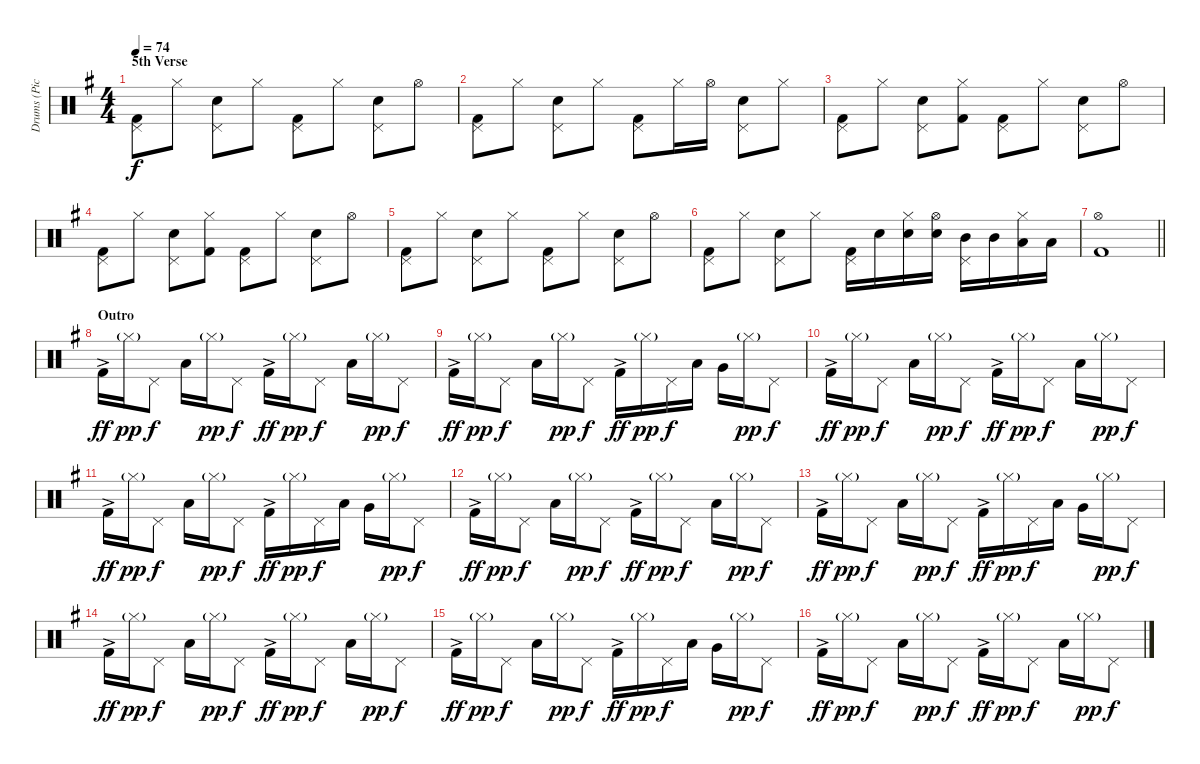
\track ("Drums (Pick)" "Drums (Pic") {instrument percussion}
\staff {score}
\articulation defaults
\ts (4 4)
\section ("" "5th Verse")
\tempo 74
\clef neutral
\ks g
("Kick (hit) 2" "Pedal Hi-Hat (hit)").8{dy f} "Hi-Hat (closed)".8 ("Snare (hit) 2" "Pedal Hi-Hat (hit)").8 "Hi-Hat (closed)".8 ("Kick (hit) 2" "Pedal Hi-Hat (hit)").8 "Hi-Hat (closed)".8 ("Snare (hit) 2" "Pedal Hi-Hat (hit)").8 "Hi-Hat (open)".8 |
("Kick (hit) 2" "Pedal Hi-Hat (hit)").8 "Hi-Hat (closed)".8 ("Snare (hit) 2" "Pedal Hi-Hat (hit)").8 "Hi-Hat (closed)".8 ("Kick (hit) 2" "Pedal Hi-Hat (hit)").8 "Hi-Hat (closed)".16 "Hi-Hat (open)".16 ("Snare (hit) 2" "Pedal Hi-Hat (hit)").8 "Hi-Hat (closed)".8 |
("Kick (hit) 2" "Pedal Hi-Hat (hit)").8 "Hi-Hat (closed)".8 ("Snare (hit) 2" "Pedal Hi-Hat (hit)").8 ("Hi-Hat (closed)" "Kick (hit) 2").8 ("Kick (hit) 2" "Pedal Hi-Hat (hit)").8 "Hi-Hat (closed)".8 ("Snare (hit) 2" "Pedal Hi-Hat (hit)").8 "Hi-Hat (open)".8 |
("Kick (hit) 2" "Pedal Hi-Hat (hit)").8 "Hi-Hat (closed)".8 ("Snare (hit) 2" "Pedal Hi-Hat (hit)").8 ("Hi-Hat (closed)" "Kick (hit) 2").8 ("Kick (hit) 2" "Pedal Hi-Hat (hit)").8 "Hi-Hat (closed)".8 ("Snare (hit) 2" "Pedal Hi-Hat (hit)").8 "Hi-Hat (open)".8 |
("Kick (hit) 2" "Pedal Hi-Hat (hit)").8 "Hi-Hat (closed)".8 ("Snare (hit) 2" "Pedal Hi-Hat (hit)").8 "Hi-Hat (closed)".8 ("Kick (hit) 2" "Pedal Hi-Hat (hit)").8 "Hi-Hat (closed)".8 ("Snare (hit) 2" "Pedal Hi-Hat (hit)").8 "Hi-Hat (open)".8 |
("Kick (hit) 2" "Pedal Hi-Hat (hit)").8 "Hi-Hat (closed)".8 ("Snare (hit) 2" "Pedal Hi-Hat (hit)").8 "Hi-Hat (closed)".8 ("Kick (hit) 2" "Pedal Hi-Hat (hit)").16 "Snare (hit) 2".16 ("Hi-Hat (closed)" "Snare (hit) 2").16 ("Hi-Hat (open)" "Snare (hit) 2").16 ("Mid Tom (hit)" "Pedal Hi-Hat (hit)").16 "Mid Tom (hit)".16 ("Hi-Hat (closed)" "Low Tom (hit)").16 "Low Tom (hit)".16 |
\barLineRight lightlight
("Hi-Hat (open)" "Kick (hit) 2").1 |
\section ("" "Outro")
"Kick (hit) 2"{ac}.16{dy ff} "Hi-Hat (closed)"{g}.16{dy pp} "Pedal Hi-Hat (hit)".8{dy f} "Low Tom (hit)".16 "Hi-Hat (closed)"{g}.16{dy pp} "Pedal Hi-Hat (hit)".8{dy f} "Kick (hit) 2"{ac}.16{dy ff} "Hi-Hat (closed)"{g}.16{dy pp} "Pedal Hi-Hat (hit)".8{dy f} "Low Tom (hit)".16 "Hi-Hat (closed)"{g}.16{dy pp} "Pedal Hi-Hat (hit)".8{dy f} |
"Kick (hit) 2"{ac}.16{dy ff} "Hi-Hat (closed)"{g}.16{dy pp} "Pedal Hi-Hat (hit)".8{dy f} "Low Tom (hit)".16 "Hi-Hat (closed)"{g}.16{dy pp} "Pedal Hi-Hat (hit)".8{dy f} "Kick (hit) 2"{ac}.16{dy ff} "Hi-Hat (closed)"{g}.16{dy pp} "Pedal Hi-Hat (hit)".16{dy f} "Low Tom (hit)".16 "Very Low Tom (hit)".16 "Hi-Hat (closed)"{g}.16{dy pp} "Pedal Hi-Hat (hit)".8{dy f} |
"Kick (hit) 2"{ac}.16{dy ff} "Hi-Hat (closed)"{g}.16{dy pp} "Pedal Hi-Hat (hit)".8{dy f} "Low Tom (hit)".16 "Hi-Hat (closed)"{g}.16{dy pp} "Pedal Hi-Hat (hit)".8{dy f} "Kick (hit) 2"{ac}.16{dy ff} "Hi-Hat (closed)"{g}.16{dy pp} "Pedal Hi-Hat (hit)".8{dy f} "Low Tom (hit)".16 "Hi-Hat (closed)"{g}.16{dy pp} "Pedal Hi-Hat (hit)".8{dy f} |
"Kick (hit) 2"{ac}.16{dy ff} "Hi-Hat (closed)"{g}.16{dy pp} "Pedal Hi-Hat (hit)".8{dy f} "Low Tom (hit)".16 "Hi-Hat (closed)"{g}.16{dy pp} "Pedal Hi-Hat (hit)".8{dy f} "Kick (hit) 2"{ac}.16{dy ff} "Hi-Hat (closed)"{g}.16{dy pp} "Pedal Hi-Hat (hit)".16{dy f} "Low Tom (hit)".16 "Very Low Tom (hit)".16 "Hi-Hat (closed)"{g}.16{dy pp} "Pedal Hi-Hat (hit)".8{dy f} |
"Kick (hit) 2"{ac}.16{dy ff} "Hi-Hat (closed)"{g}.16{dy pp} "Pedal Hi-Hat (hit)".8{dy f} "Low Tom (hit)".16 "Hi-Hat (closed)"{g}.16{dy pp} "Pedal Hi-Hat (hit)".8{dy f} "Kick (hit) 2"{ac}.16{dy ff} "Hi-Hat (closed)"{g}.16{dy pp} "Pedal Hi-Hat (hit)".8{dy f} "Low Tom (hit)".16 "Hi-Hat (closed)"{g}.16{dy pp} "Pedal Hi-Hat (hit)".8{dy f} |
"Kick (hit) 2"{ac}.16{dy ff} "Hi-Hat (closed)"{g}.16{dy pp} "Pedal Hi-Hat (hit)".8{dy f} "Low Tom (hit)".16 "Hi-Hat (closed)"{g}.16{dy pp} "Pedal Hi-Hat (hit)".8{dy f} "Kick (hit) 2"{ac}.16{dy ff} "Hi-Hat (closed)"{g}.16{dy pp} "Pedal Hi-Hat (hit)".16{dy f} "Low Tom (hit)".16 "Very Low Tom (hit)".16 "Hi-Hat (closed)"{g}.16{dy pp} "Pedal Hi-Hat (hit)".8{dy f} |
"Kick (hit) 2"{ac}.16{dy ff} "Hi-Hat (closed)"{g}.16{dy pp} "Pedal Hi-Hat (hit)".8{dy f} "Low Tom (hit)".16 "Hi-Hat (closed)"{g}.16{dy pp} "Pedal Hi-Hat (hit)".8{dy f} "Kick (hit) 2"{ac}.16{dy ff} "Hi-Hat (closed)"{g}.16{dy pp} "Pedal Hi-Hat (hit)".8{dy f} "Low Tom (hit)".16 "Hi-Hat (closed)"{g}.16{dy pp} "Pedal Hi-Hat (hit)".8{dy f} |
"Kick (hit) 2"{ac}.16{dy ff} "Hi-Hat (closed)"{g}.16{dy pp} "Pedal Hi-Hat (hit)".8{dy f} "Low Tom (hit)".16 "Hi-Hat (closed)"{g}.16{dy pp} "Pedal Hi-Hat (hit)".8{dy f} "Kick (hit) 2"{ac}.16{dy ff} "Hi-Hat (closed)"{g}.16{dy pp} "Pedal Hi-Hat (hit)".16{dy f} "Low Tom (hit)".16 "Very Low Tom (hit)".16 "Hi-Hat (closed)"{g}.16{dy pp} "Pedal Hi-Hat (hit)".8{dy f} |
"Kick (hit) 2"{ac}.16{dy ff} "Hi-Hat (closed)"{g}.16{dy pp} "Pedal Hi-Hat (hit)".8{dy f} "Low Tom (hit)".16 "Hi-Hat (closed)"{g}.16{dy pp} "Pedal Hi-Hat (hit)".8{dy f} "Kick (hit) 2"{ac}.16{dy ff} "Hi-Hat (closed)"{g}.16{dy pp} "Pedal Hi-Hat (hit)".8{dy f} "Low Tom (hit)".16 "Hi-Hat (closed)"{g}.16{dy pp} "Pedal Hi-Hat (hit)".8{dy f}
